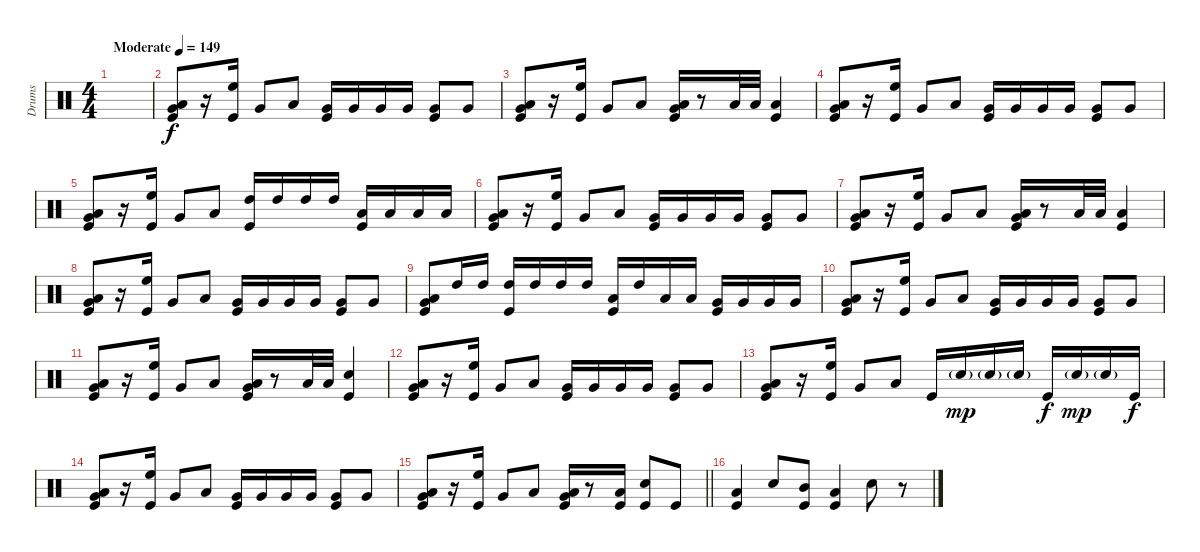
\track ("Drums" "Drums") {instrument percussion}
\staff {score}
\articulation defaults
\ts (4 4)
\tempo (149 "Moderate")
\clef neutral
\ks c
|
("Very Low Tom (hit)" "Low Tom (hit)" "Kick (hit)").8 r.16 ("High Floor Tom (hit)" "Kick (hit)").16 "Very Low Tom (hit)".8 "Low Tom (hit)".8 ("Very Low Tom (hit)" "Kick (hit)").16 "Very Low Tom (hit)".16 "Very Low Tom (hit)".16 "Very Low Tom (hit)".16 ("Very Low Tom (hit)" "Kick (hit)").8 "Very Low Tom (hit)".8 |
("Very Low Tom (hit)" "Low Tom (hit)" "Kick (hit)").8 r.16 ("High Floor Tom (hit)" "Kick (hit)").16 "Very Low Tom (hit)".8 "Low Tom (hit)".8 ("Very Low Tom (hit)" "Low Tom (hit)" "Kick (hit)").16 r.8 "Low Tom (hit)".32 "Low Tom (hit)".32 ("Low Tom (hit)" "Kick (hit)").4 |
("Very Low Tom (hit)" "Low Tom (hit)" "Kick (hit)").8 r.16 ("High Floor Tom (hit)" "Kick (hit)").16 "Very Low Tom (hit)".8 "Low Tom (hit)".8 ("Very Low Tom (hit)" "Kick (hit)").16 "Very Low Tom (hit)".16 "Very Low Tom (hit)".16 "Very Low Tom (hit)".16 ("Very Low Tom (hit)" "Kick (hit)").8 "Very Low Tom (hit)".8 |
("Very Low Tom (hit)" "Low Tom (hit)" "Kick (hit)").8 r.16 ("High Floor Tom (hit)" "Kick (hit)").16 "Very Low Tom (hit)".8 "Low Tom (hit)".8 ("High Tom (hit)" "Kick (hit)").16 "High Tom (hit)".16 "High Tom (hit)".16 "High Tom (hit)".16 ("Low Tom (hit)" "Kick (hit)").16 "Low Tom (hit)".16 "Low Tom (hit)".16 "Low Tom (hit)".16 |
("Very Low Tom (hit)" "Low Tom (hit)" "Kick (hit)").8 r.16 ("High Floor Tom (hit)" "Kick (hit)").16 "Very Low Tom (hit)".8 "Low Tom (hit)".8 ("Very Low Tom (hit)" "Kick (hit)").16 "Very Low Tom (hit)".16 "Very Low Tom (hit)".16 "Very Low Tom (hit)".16 ("Very Low Tom (hit)" "Kick (hit)").8 "Very Low Tom (hit)".8 |
("Very Low Tom (hit)" "Low Tom (hit)" "Kick (hit)").8 r.16 ("High Floor Tom (hit)" "Kick (hit)").16 "Very Low Tom (hit)".8 "Low Tom (hit)".8 ("Very Low Tom (hit)" "Low Tom (hit)" "Kick (hit)").16 r.8 "Low Tom (hit)".32 "Low Tom (hit)".32 ("Low Tom (hit)" "Kick (hit)").4 |
("Very Low Tom (hit)" "Low Tom (hit)" "Kick (hit)").8 r.16 ("High Floor Tom (hit)" "Kick (hit)").16 "Very Low Tom (hit)".8 "Low Tom (hit)".8 ("Very Low Tom (hit)" "Kick (hit)").16 "Very Low Tom (hit)".16 "Very Low Tom (hit)".16 "Very Low Tom (hit)".16 ("Very Low Tom (hit)" "Kick (hit)").8 "Very Low Tom (hit)".8 |
("Very Low Tom (hit)" "Low Tom (hit)" "Kick (hit)").8 "High Tom (hit)".16 "High Tom (hit)".16 ("High Tom (hit)" "Kick (hit)").16 "High Tom (hit)".16 "High Tom (hit)".16 "High Tom (hit)".16 ("Low Tom (hit)" "Kick (hit)").16 "High Tom (hit)".16 "Low Tom (hit)".16 "Low Tom (hit)".16 ("Very Low Tom (hit)" "Kick (hit)").16 "Very Low Tom (hit)".16 "Very Low Tom (hit)".16 "Very Low Tom (hit)".16 |
("Very Low Tom (hit)" "Low Tom (hit)" "Kick (hit)").8 r.16 ("High Floor Tom (hit)" "Kick (hit)").16 "Very Low Tom (hit)".8 "Low Tom (hit)".8 ("Very Low Tom (hit)" "Kick (hit)").16 "Very Low Tom (hit)".16 "Very Low Tom (hit)".16 "Very Low Tom (hit)".16 ("Very Low Tom (hit)" "Kick (hit)").8 "Very Low Tom (hit)".8 |
("Very Low Tom (hit)" "Low Tom (hit)" "Kick (hit)").8 r.16 ("High Floor Tom (hit)" "Kick (hit)").16 "Very Low Tom (hit)".8 "Low Tom (hit)".8 ("Very Low Tom (hit)" "Low Tom (hit)" "Kick (hit)").16 r.8 "Low Tom (hit)".32 "Low Tom (hit)".32 ("Snare (hit) 2" "Kick (hit)").4 |
("Very Low Tom (hit)" "Low Tom (hit)" "Kick (hit)").8 r.16 ("High Floor Tom (hit)" "Kick (hit)").16 "Very Low Tom (hit)".8 "Low Tom (hit)".8 ("Very Low Tom (hit)" "Kick (hit)").16 "Very Low Tom (hit)".16 "Very Low Tom (hit)".16 "Very Low Tom (hit)".16 ("Very Low Tom (hit)" "Kick (hit)").8 "Very Low Tom (hit)".8 |
("Very Low Tom (hit)" "Low Tom (hit)" "Kick (hit)").8 r.16 ("High Floor Tom (hit)" "Kick (hit)").16 "Very Low Tom (hit)".8 "Low Tom (hit)".8 "Kick (hit)".16 "Snare (hit) 2"{g}.16{dy mp} "Snare (hit) 2"{g}.16 "Snare (hit) 2"{g}.16 "Kick (hit)".16{dy f} "Snare (hit) 2"{g}.16{dy mp} "Snare (hit) 2"{g}.16 "Kick (hit)".16{dy f} |
("Very Low Tom (hit)" "Low Tom (hit)" "Kick (hit)").8 r.16 ("High Floor Tom (hit)" "Kick (hit)").16 "Very Low Tom (hit)".8 "Low Tom (hit)".8 ("Very Low Tom (hit)" "Kick (hit)").16 "Very Low Tom (hit)".16 "Very Low Tom (hit)".16 "Very Low Tom (hit)".16 ("Very Low Tom (hit)" "Kick (hit)").8 "Very Low Tom (hit)".8 |
\barLineRight lightlight
("Very Low Tom (hit)" "Low Tom (hit)" "Kick (hit)").8 r.16 ("High Floor Tom (hit)" "Kick (hit)").16 "Very Low Tom (hit)".8 "Low Tom (hit)".8 ("Very Low Tom (hit)" "Low Tom (hit)" "Kick (hit)").16 r.8 ("Low Tom (hit)" "Kick (hit)").16 ("Snare (hit) 2" "Kick (hit)").8 "Kick (hit)".8 |
("Low Tom (hit)" "Kick (hit)").4 "Snare (hit) 2".8 ("Mid Tom (hit)" "Kick (hit)").8 ("Low Tom (hit)" "Kick (hit)").4 "Snare (hit) 2".8 r.8
